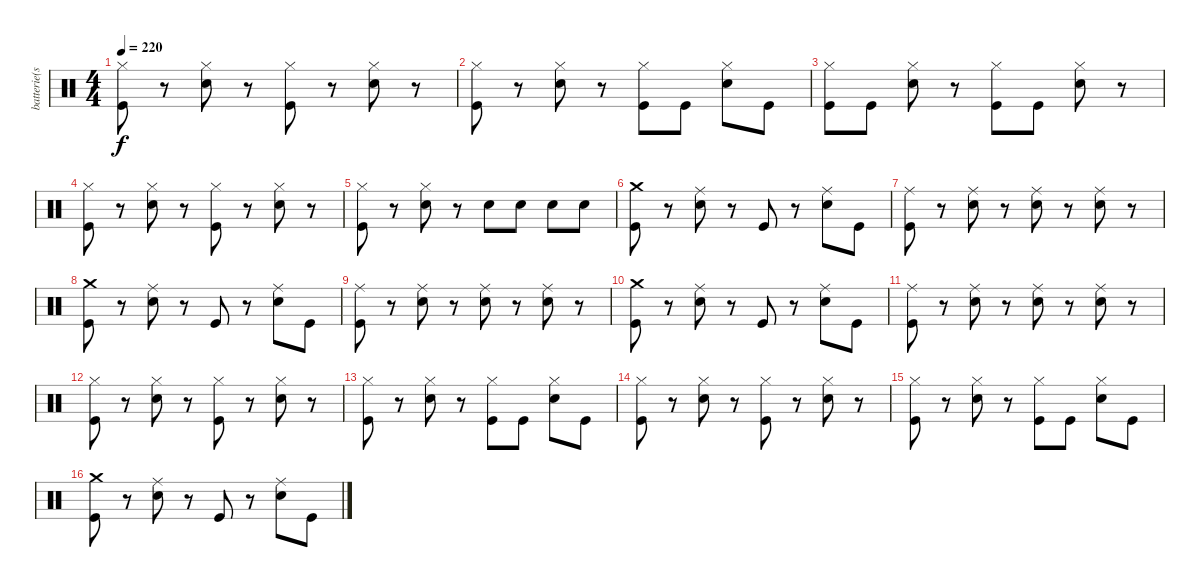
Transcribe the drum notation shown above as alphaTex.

\track ("batterie(scott)" "batterie(s") {instrument percussion}
\staff {score}
\articulation defaults
\ts (4 4)
\tempo 220
\clef neutral
\ks c
("Hi-Hat (closed)" "Kick (hit)").8{dy f} r.8 ("Hi-Hat (closed)" "Snare (hit) 2").8 r.8 ("Hi-Hat (closed)" "Kick (hit)").8 r.8 ("Hi-Hat (closed)" "Snare (hit) 2").8 r.8 |
("Hi-Hat (closed)" "Kick (hit)").8 r.8 ("Hi-Hat (closed)" "Snare (hit) 2").8 r.8 ("Hi-Hat (closed)" "Kick (hit)").8 "Kick (hit)".8 ("Hi-Hat (closed)" "Snare (hit) 2").8 "Kick (hit)".8 |
("Hi-Hat (closed)" "Kick (hit)").8 "Kick (hit)".8 ("Hi-Hat (closed)" "Snare (hit) 2").8 r.8 ("Hi-Hat (closed)" "Kick (hit)").8 "Kick (hit)".8 ("Hi-Hat (closed)" "Snare (hit) 2").8 r.8 |
("Hi-Hat (closed)" "Kick (hit)").8 r.8 ("Hi-Hat (closed)" "Snare (hit) 2").8 r.8 ("Hi-Hat (closed)" "Kick (hit)").8 r.8 ("Hi-Hat (closed)" "Snare (hit) 2").8 r.8 |
("Hi-Hat (closed)" "Kick (hit)").8 r.8 ("Hi-Hat (closed)" "Snare (hit) 2").8 r.8 "Snare (hit) 2".8 "Snare (hit) 2".8 "Snare (hit) 2".8 "Snare (hit) 2".8 |
("Crash medium (hit)" "Kick (hit)").8 r.8 ("Ride (middle)" "Snare (hit) 2").8 r.8 "Kick (hit)".8 r.8 ("Ride (middle)" "Snare (hit) 2").8 "Kick (hit)".8 |
("Ride (middle)" "Kick (hit)").8 r.8 ("Ride (middle)" "Snare (hit) 2").8 r.8 ("Ride (middle)" "Snare (hit) 2").8 r.8 ("Ride (middle)" "Snare (hit) 2").8 r.8 |
("Crash medium (hit)" "Kick (hit)").8 r.8 ("Ride (middle)" "Snare (hit) 2").8 r.8 "Kick (hit)".8 r.8 ("Ride (middle)" "Snare (hit) 2").8 "Kick (hit)".8 |
("Ride (middle)" "Kick (hit)").8 r.8 ("Ride (middle)" "Snare (hit) 2").8 r.8 ("Ride (middle)" "Snare (hit) 2").8 r.8 ("Ride (middle)" "Snare (hit) 2").8 r.8 |
("Crash medium (hit)" "Kick (hit)").8 r.8 ("Ride (middle)" "Snare (hit) 2").8 r.8 "Kick (hit)".8 r.8 ("Ride (middle)" "Snare (hit) 2").8 "Kick (hit)".8 |
("Ride (middle)" "Kick (hit)").8 r.8 ("Ride (middle)" "Snare (hit) 2").8 r.8 ("Ride (middle)" "Snare (hit) 2").8 r.8 ("Ride (middle)" "Snare (hit) 2").8 r.8 |
("Hi-Hat (closed)" "Kick (hit)").8 r.8 ("Hi-Hat (closed)" "Snare (hit) 2").8 r.8 ("Hi-Hat (closed)" "Kick (hit)").8 r.8 ("Hi-Hat (closed)" "Snare (hit) 2").8 r.8 |
("Hi-Hat (closed)" "Kick (hit)").8 r.8 ("Hi-Hat (closed)" "Snare (hit) 2").8 r.8 ("Hi-Hat (closed)" "Kick (hit)").8 "Kick (hit)".8 ("Hi-Hat (closed)" "Snare (hit) 2").8 "Kick (hit)".8 |
("Hi-Hat (closed)" "Kick (hit)").8 r.8 ("Hi-Hat (closed)" "Snare (hit) 2").8 r.8 ("Hi-Hat (closed)" "Kick (hit)").8 r.8 ("Hi-Hat (closed)" "Snare (hit) 2").8 r.8 |
("Hi-Hat (closed)" "Kick (hit)").8 r.8 ("Hi-Hat (closed)" "Snare (hit) 2").8 r.8 ("Hi-Hat (closed)" "Kick (hit)").8 "Kick (hit)".8 ("Hi-Hat (closed)" "Snare (hit) 2").8 "Kick (hit)".8 |
("Crash medium (hit)" "Kick (hit)").8 r.8 ("Ride (middle)" "Snare (hit) 2").8 r.8 "Kick (hit)".8 r.8 ("Ride (middle)" "Snare (hit) 2").8 "Kick (hit)".8
